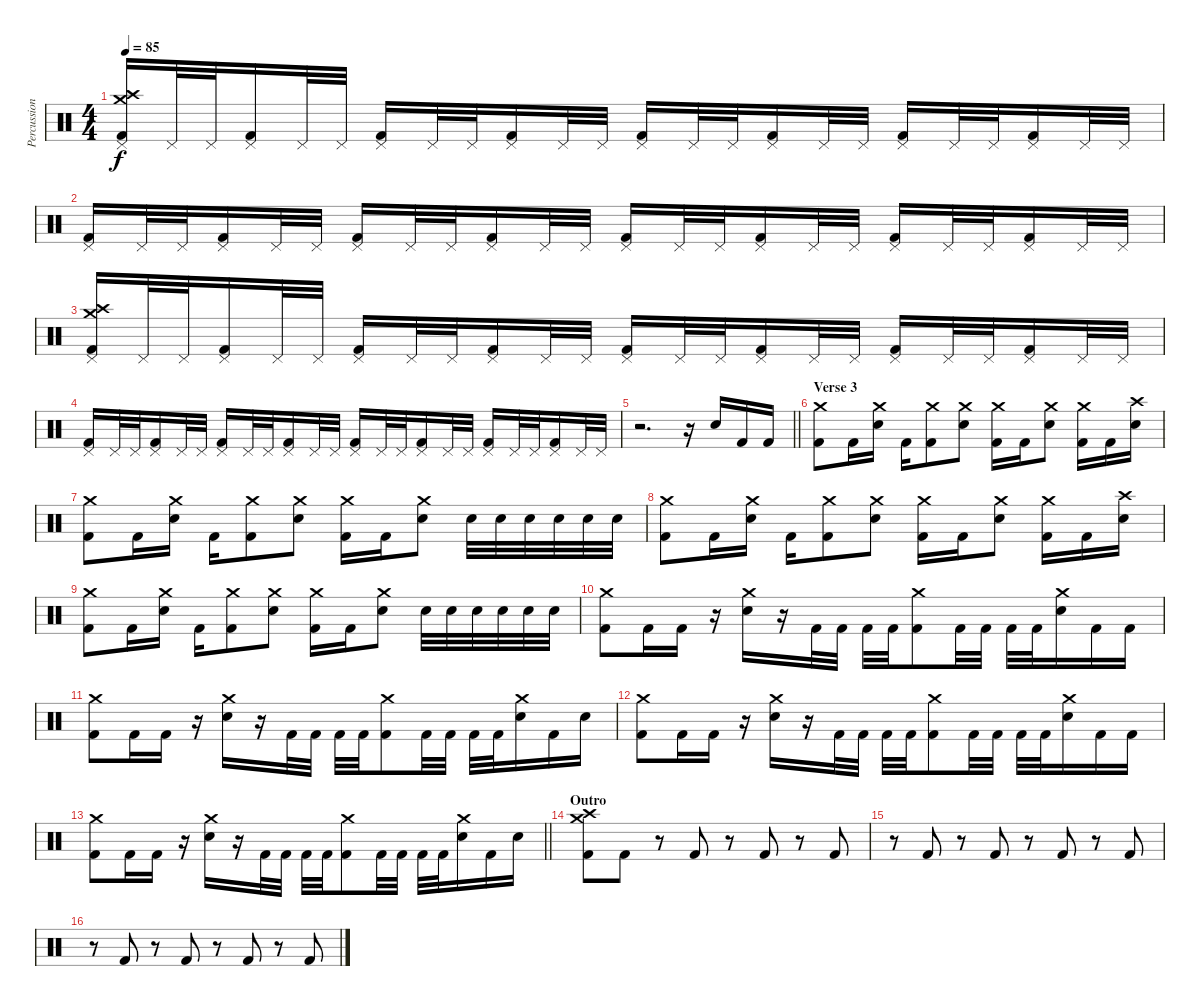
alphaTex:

\track ("Percussion" "Percussion") {instrument percussion}
\staff {score}
\articulation defaults
\ts (4 4)
\tempo 85
\clef neutral
\ks c
("Pedal Hi-Hat (hit)" "Crash medium (hit)" "Crash high (hit)" "Kick (hit) 2").16{dy f} "Pedal Hi-Hat (hit)".32 "Pedal Hi-Hat (hit)".32 ("Pedal Hi-Hat (hit)" "Kick (hit) 2").16 "Pedal Hi-Hat (hit)".32 "Pedal Hi-Hat (hit)".32 ("Pedal Hi-Hat (hit)" "Kick (hit) 2").16 "Pedal Hi-Hat (hit)".32 "Pedal Hi-Hat (hit)".32 ("Pedal Hi-Hat (hit)" "Kick (hit) 2").16 "Pedal Hi-Hat (hit)".32 "Pedal Hi-Hat (hit)".32 ("Pedal Hi-Hat (hit)" "Kick (hit) 2").16 "Pedal Hi-Hat (hit)".32 "Pedal Hi-Hat (hit)".32 ("Pedal Hi-Hat (hit)" "Kick (hit) 2").16 "Pedal Hi-Hat (hit)".32 "Pedal Hi-Hat (hit)".32 ("Pedal Hi-Hat (hit)" "Kick (hit) 2").16 "Pedal Hi-Hat (hit)".32 "Pedal Hi-Hat (hit)".32 ("Pedal Hi-Hat (hit)" "Kick (hit) 2").16 "Pedal Hi-Hat (hit)".32 "Pedal Hi-Hat (hit)".32 |
("Pedal Hi-Hat (hit)" "Kick (hit) 2").16 "Pedal Hi-Hat (hit)".32 "Pedal Hi-Hat (hit)".32 ("Pedal Hi-Hat (hit)" "Kick (hit) 2").16 "Pedal Hi-Hat (hit)".32 "Pedal Hi-Hat (hit)".32 ("Pedal Hi-Hat (hit)" "Kick (hit) 2").16 "Pedal Hi-Hat (hit)".32 "Pedal Hi-Hat (hit)".32 ("Pedal Hi-Hat (hit)" "Kick (hit) 2").16 "Pedal Hi-Hat (hit)".32 "Pedal Hi-Hat (hit)".32 ("Pedal Hi-Hat (hit)" "Kick (hit) 2").16 "Pedal Hi-Hat (hit)".32 "Pedal Hi-Hat (hit)".32 ("Pedal Hi-Hat (hit)" "Kick (hit) 2").16 "Pedal Hi-Hat (hit)".32 "Pedal Hi-Hat (hit)".32 ("Pedal Hi-Hat (hit)" "Kick (hit) 2").16 "Pedal Hi-Hat (hit)".32 "Pedal Hi-Hat (hit)".32 ("Pedal Hi-Hat (hit)" "Kick (hit) 2").16 "Pedal Hi-Hat (hit)".32 "Pedal Hi-Hat (hit)".32 |
("Pedal Hi-Hat (hit)" "Crash medium (hit)" "Crash high (hit)" "Kick (hit) 2").16 "Pedal Hi-Hat (hit)".32 "Pedal Hi-Hat (hit)".32 ("Pedal Hi-Hat (hit)" "Kick (hit) 2").16 "Pedal Hi-Hat (hit)".32 "Pedal Hi-Hat (hit)".32 ("Pedal Hi-Hat (hit)" "Kick (hit) 2").16 "Pedal Hi-Hat (hit)".32 "Pedal Hi-Hat (hit)".32 ("Pedal Hi-Hat (hit)" "Kick (hit) 2").16 "Pedal Hi-Hat (hit)".32 "Pedal Hi-Hat (hit)".32 ("Pedal Hi-Hat (hit)" "Kick (hit) 2").16 "Pedal Hi-Hat (hit)".32 "Pedal Hi-Hat (hit)".32 ("Pedal Hi-Hat (hit)" "Kick (hit) 2").16 "Pedal Hi-Hat (hit)".32 "Pedal Hi-Hat (hit)".32 ("Pedal Hi-Hat (hit)" "Kick (hit) 2").16 "Pedal Hi-Hat (hit)".32 "Pedal Hi-Hat (hit)".32 ("Pedal Hi-Hat (hit)" "Kick (hit) 2").16 "Pedal Hi-Hat (hit)".32 "Pedal Hi-Hat (hit)".32 |
("Pedal Hi-Hat (hit)" "Kick (hit) 2").16 "Pedal Hi-Hat (hit)".32 "Pedal Hi-Hat (hit)".32 ("Pedal Hi-Hat (hit)" "Kick (hit) 2").16 "Pedal Hi-Hat (hit)".32 "Pedal Hi-Hat (hit)".32 ("Pedal Hi-Hat (hit)" "Kick (hit) 2").16 "Pedal Hi-Hat (hit)".32 "Pedal Hi-Hat (hit)".32 ("Pedal Hi-Hat (hit)" "Kick (hit) 2").16 "Pedal Hi-Hat (hit)".32 "Pedal Hi-Hat (hit)".32 ("Pedal Hi-Hat (hit)" "Kick (hit) 2").16 "Pedal Hi-Hat (hit)".32 "Pedal Hi-Hat (hit)".32 ("Pedal Hi-Hat (hit)" "Kick (hit) 2").16 "Pedal Hi-Hat (hit)".32 "Pedal Hi-Hat (hit)".32 ("Pedal Hi-Hat (hit)" "Kick (hit) 2").16 "Pedal Hi-Hat (hit)".32 "Pedal Hi-Hat (hit)".32 ("Pedal Hi-Hat (hit)" "Kick (hit) 2").16 "Pedal Hi-Hat (hit)".32 "Pedal Hi-Hat (hit)".32 |
\barLineRight lightlight
r.2{d} r.16 "Electric Snare (hit)".16 "Kick (hit) 2".16 "Kick (hit) 2".16 |
\section ("" "Verse 3")
("Crash medium (hit)" "Kick (hit) 2").8 "Kick (hit) 2".16 ("Crash medium (hit)" "Electric Snare (hit)").16 "Kick (hit) 2".16 ("Crash medium (hit)" "Kick (hit) 2").8 ("Crash medium (hit)" "Electric Snare (hit)").8 ("Crash medium (hit)" "Kick (hit) 2").16 "Kick (hit) 2".16 ("Crash medium (hit)" "Electric Snare (hit)").8 ("Crash medium (hit)" "Kick (hit) 2").16 "Kick (hit) 2".16 ("Crash high (hit)" "Electric Snare (hit)").16 |
("Crash medium (hit)" "Kick (hit) 2").8 "Kick (hit) 2".16 ("Crash medium (hit)" "Electric Snare (hit)").16 "Kick (hit) 2".16 ("Crash medium (hit)" "Kick (hit) 2").8 ("Crash medium (hit)" "Electric Snare (hit)").8 ("Crash medium (hit)" "Kick (hit) 2").16 "Kick (hit) 2".16 ("Crash medium (hit)" "Electric Snare (hit)").8 "Electric Snare (hit)".32 "Electric Snare (hit)".32 "Electric Snare (hit)".32 "Electric Snare (hit)".32 "Electric Snare (hit)".32 "Electric Snare (hit)".32 |
("Crash medium (hit)" "Kick (hit) 2").8 "Kick (hit) 2".16 ("Crash medium (hit)" "Electric Snare (hit)").16 "Kick (hit) 2".16 ("Crash medium (hit)" "Kick (hit) 2").8 ("Crash medium (hit)" "Electric Snare (hit)").8 ("Crash medium (hit)" "Kick (hit) 2").16 "Kick (hit) 2".16 ("Crash medium (hit)" "Electric Snare (hit)").8 ("Crash medium (hit)" "Kick (hit) 2").16 "Kick (hit) 2".16 ("Crash high (hit)" "Electric Snare (hit)").16 |
("Crash medium (hit)" "Kick (hit) 2").8 "Kick (hit) 2".16 ("Crash medium (hit)" "Electric Snare (hit)").16 "Kick (hit) 2".16 ("Crash medium (hit)" "Kick (hit) 2").8 ("Crash medium (hit)" "Electric Snare (hit)").8 ("Crash medium (hit)" "Kick (hit) 2").16 "Kick (hit) 2".16 ("Crash medium (hit)" "Electric Snare (hit)").8 "Electric Snare (hit)".32 "Electric Snare (hit)".32 "Electric Snare (hit)".32 "Electric Snare (hit)".32 "Electric Snare (hit)".32 "Electric Snare (hit)".32 |
("Crash medium (hit)" "Kick (hit) 2").8 "Kick (hit) 2".16 "Kick (hit) 2".16 r.16 ("Crash medium (hit)" "Electric Snare (hit)").16 r.16 "Kick (hit) 2".32 "Kick (hit) 2".32 "Kick (hit) 2".32 "Kick (hit) 2".32 ("Crash medium (hit)" "Kick (hit) 2").8 "Kick (hit) 2".32 "Kick (hit) 2".32 "Kick (hit) 2".32 "Kick (hit) 2".32 ("Crash medium (hit)" "Electric Snare (hit)").16 "Kick (hit) 2".16 "Kick (hit) 2".16 |
("Crash medium (hit)" "Kick (hit) 2").8 "Kick (hit) 2".16 "Kick (hit) 2".16 r.16 ("Crash medium (hit)" "Electric Snare (hit)").16 r.16 "Kick (hit) 2".32 "Kick (hit) 2".32 "Kick (hit) 2".32 "Kick (hit) 2".32 ("Crash medium (hit)" "Kick (hit) 2").8 "Kick (hit) 2".32 "Kick (hit) 2".32 "Kick (hit) 2".32 "Kick (hit) 2".32 ("Crash medium (hit)" "Electric Snare (hit)").16 "Kick (hit) 2".16 "Electric Snare (hit)".16 |
("Crash medium (hit)" "Kick (hit) 2").8 "Kick (hit) 2".16 "Kick (hit) 2".16 r.16 ("Crash medium (hit)" "Electric Snare (hit)").16 r.16 "Kick (hit) 2".32 "Kick (hit) 2".32 "Kick (hit) 2".32 "Kick (hit) 2".32 ("Crash medium (hit)" "Kick (hit) 2").8 "Kick (hit) 2".32 "Kick (hit) 2".32 "Kick (hit) 2".32 "Kick (hit) 2".32 ("Crash medium (hit)" "Electric Snare (hit)").16 "Kick (hit) 2".16 "Kick (hit) 2".16 |
\barLineRight lightlight
("Crash medium (hit)" "Kick (hit) 2").8 "Kick (hit) 2".16 "Kick (hit) 2".16 r.16 ("Crash medium (hit)" "Electric Snare (hit)").16 r.16 "Kick (hit) 2".32 "Kick (hit) 2".32 "Kick (hit) 2".32 "Kick (hit) 2".32 ("Crash medium (hit)" "Kick (hit) 2").8 "Kick (hit) 2".32 "Kick (hit) 2".32 "Kick (hit) 2".32 "Kick (hit) 2".32 ("Crash medium (hit)" "Electric Snare (hit)").16 "Kick (hit) 2".16 "Electric Snare (hit)".16 |
\section ("" "Outro")
("Crash medium (hit)" "Crash high (hit)" "Kick (hit) 2").8 "Kick (hit) 2".8 r.8 "Kick (hit) 2".8 r.8 "Kick (hit) 2".8 r.8 "Kick (hit) 2".8 |
r.8 "Kick (hit) 2".8 r.8 "Kick (hit) 2".8 r.8 "Kick (hit) 2".8 r.8 "Kick (hit) 2".8 |
r.8 "Kick (hit) 2".8 r.8 "Kick (hit) 2".8 r.8 "Kick (hit) 2".8 r.8 "Kick (hit) 2".8
